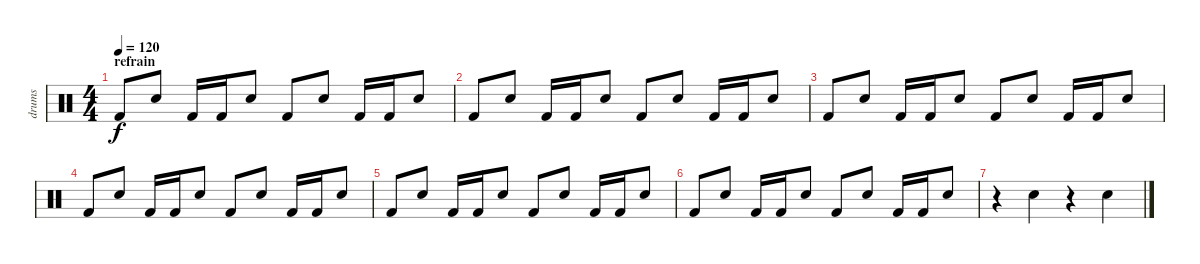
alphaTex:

\track ("drums" "drums") {instrument percussion}
\staff {score}
\articulation defaults
\ts (4 4)
\section ("" "refrain")
\tempo 120
\clef neutral
\ks c "Kick (hit) 2".8{dy f} "Snare (hit) 2".8 "Kick (hit) 2".16 "Kick (hit) 2".16 "Snare (hit) 2".8 "Kick (hit) 2".8 "Snare (hit) 2".8 "Kick (hit) 2".16 "Kick (hit) 2".16 "Snare (hit) 2".8
|
"Kick (hit) 2".8 "Snare (hit) 2".8 "Kick (hit) 2".16 "Kick (hit) 2".16 "Snare (hit) 2".8 "Kick (hit) 2".8 "Snare (hit) 2".8 "Kick (hit) 2".16 "Kick (hit) 2".16 "Snare (hit) 2".8 |
"Kick (hit) 2".8 "Snare (hit) 2".8 "Kick (hit) 2".16 "Kick (hit) 2".16 "Snare (hit) 2".8 "Kick (hit) 2".8 "Snare (hit) 2".8 "Kick (hit) 2".16 "Kick (hit) 2".16 "Snare (hit) 2".8 |
"Kick (hit) 2".8 "Snare (hit) 2".8 "Kick (hit) 2".16 "Kick (hit) 2".16 "Snare (hit) 2".8 "Kick (hit) 2".8 "Snare (hit) 2".8 "Kick (hit) 2".16 "Kick (hit) 2".16 "Snare (hit) 2".8 |
"Kick (hit) 2".8 "Snare (hit) 2".8 "Kick (hit) 2".16 "Kick (hit) 2".16 "Snare (hit) 2".8 "Kick (hit) 2".8 "Snare (hit) 2".8 "Kick (hit) 2".16 "Kick (hit) 2".16 "Snare (hit) 2".8 |
"Kick (hit) 2".8 "Snare (hit) 2".8 "Kick (hit) 2".16 "Kick (hit) 2".16 "Snare (hit) 2".8 "Kick (hit) 2".8 "Snare (hit) 2".8 "Kick (hit) 2".16 "Kick (hit) 2".16 "Snare (hit) 2".8 |
r.4 "Snare (hit) 2".4 r.4 "Snare (hit) 2".4
